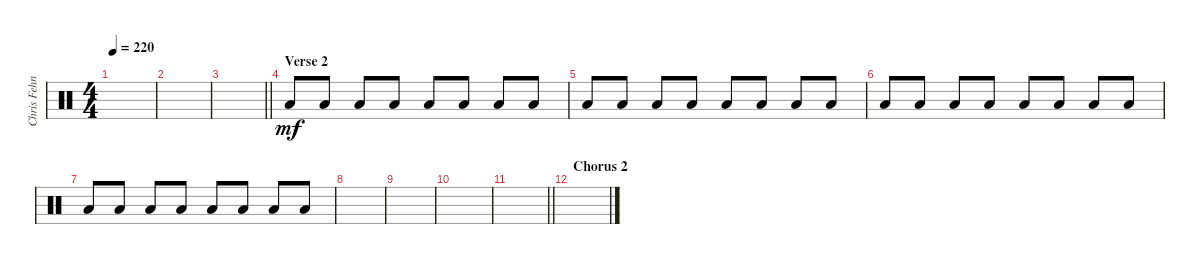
\track ("Chris Fehn" "Chris Fehn") {instrument percussion}
\staff {score}
\articulation defaults
\ts (4 4)
\tempo 220
\clef neutral
\ks c
|
|
\barLineRight lightlight
|
\section ("" "Verse 2")
"Low Floor Tom (hit)".8{dy mf} "Low Floor Tom (hit)".8 "Low Floor Tom (hit)".8 "Low Floor Tom (hit)".8 "Low Floor Tom (hit)".8 "Low Floor Tom (hit)".8 "Low Floor Tom (hit)".8 "Low Floor Tom (hit)".8 |
"Low Floor Tom (hit)".8 "Low Floor Tom (hit)".8 "Low Floor Tom (hit)".8 "Low Floor Tom (hit)".8 "Low Floor Tom (hit)".8 "Low Floor Tom (hit)".8 "Low Floor Tom (hit)".8 "Low Floor Tom (hit)".8 |
"Low Floor Tom (hit)".8 "Low Floor Tom (hit)".8 "Low Floor Tom (hit)".8 "Low Floor Tom (hit)".8 "Low Floor Tom (hit)".8 "Low Floor Tom (hit)".8 "Low Floor Tom (hit)".8 "Low Floor Tom (hit)".8 |
"Low Floor Tom (hit)".8 "Low Floor Tom (hit)".8 "Low Floor Tom (hit)".8 "Low Floor Tom (hit)".8 "Low Floor Tom (hit)".8 "Low Floor Tom (hit)".8 "Low Floor Tom (hit)".8 "Low Floor Tom (hit)".8 |
|
|
|
\barLineRight lightlight
|
\section ("" "Chorus 2")
